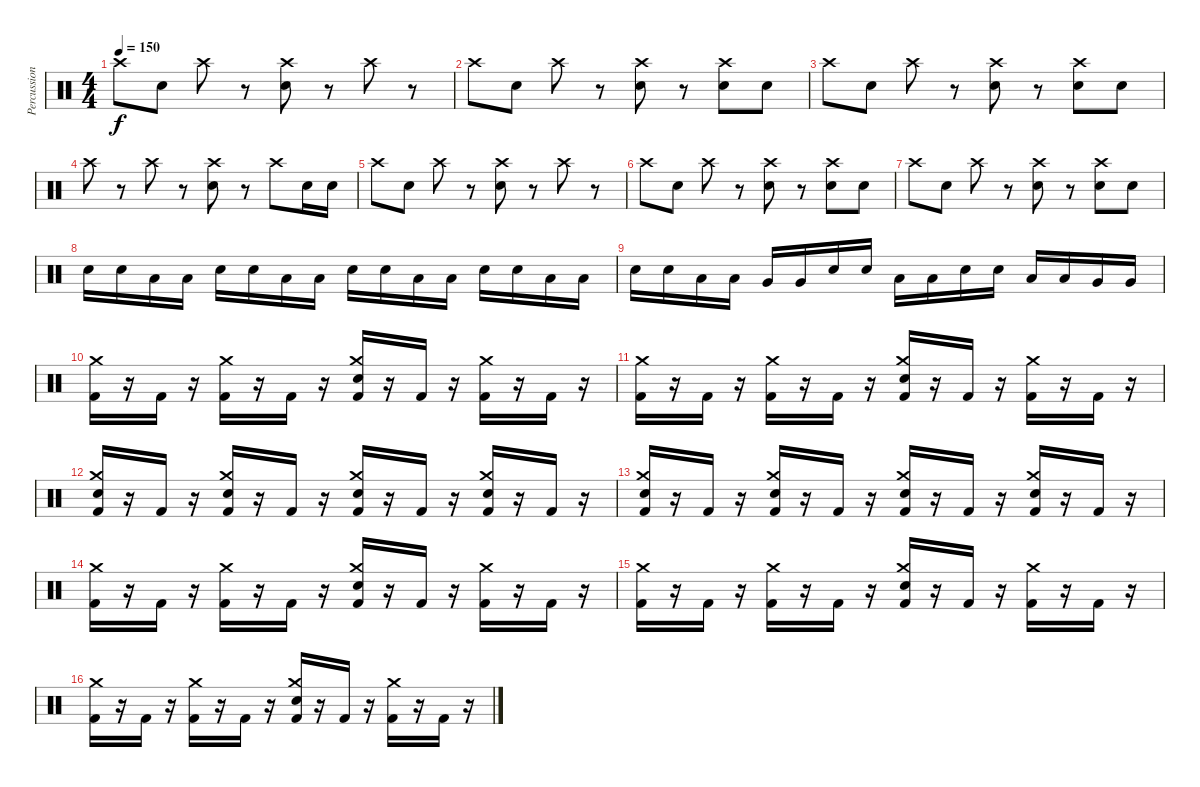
\track ("Percussion" "Percussion") {instrument percussion}
\staff {score}
\articulation defaults
\ts (4 4)
\tempo 150
\clef neutral
\ks c "Crash high (hit)".8{dy f} "Snare (hit) 2".8 "Crash high (hit)".8
r.8 ("Crash high (hit)" "Snare (hit) 2").8 r.8 "Crash high (hit)".8 r.8 |
"Crash high (hit)".8 "Snare (hit) 2".8 "Crash high (hit)".8 r.8 ("Crash high (hit)" "Snare (hit) 2").8 r.8 ("Crash high (hit)" "Snare (hit) 2").8 "Snare (hit) 2".8 |
"Crash high (hit)".8 "Snare (hit) 2".8 "Crash high (hit)".8 r.8 ("Crash high (hit)" "Snare (hit) 2").8 r.8 ("Crash high (hit)" "Snare (hit) 2").8 "Snare (hit) 2".8 |
"Crash high (hit)".8 r.8 "Crash high (hit)".8 r.8 ("Crash high (hit)" "Snare (hit) 2").8 r.8 "Crash high (hit)".8 "Snare (hit) 2".16 "Snare (hit) 2".16 |
"Crash high (hit)".8 "Snare (hit) 2".8 "Crash high (hit)".8 r.8 ("Crash high (hit)" "Snare (hit) 2").8 r.8 "Crash high (hit)".8 r.8 |
"Crash high (hit)".8 "Snare (hit) 2".8 "Crash high (hit)".8 r.8 ("Crash high (hit)" "Snare (hit) 2").8 r.8 ("Crash high (hit)" "Snare (hit) 2").8 "Snare (hit) 2".8 |
"Crash high (hit)".8 "Snare (hit) 2".8 "Crash high (hit)".8 r.8 ("Crash high (hit)" "Snare (hit) 2").8 r.8 ("Crash high (hit)" "Snare (hit) 2").8 "Snare (hit) 2".8 |
"Snare (hit) 2".16 "Snare (hit) 2".16 "Low Tom (hit)".16 "Low Tom (hit)".16 "Snare (hit) 2".16 "Snare (hit) 2".16 "Low Tom (hit)".16 "Low Tom (hit)".16 "Snare (hit) 2".16 "Snare (hit) 2".16 "Low Tom (hit)".16 "Low Tom (hit)".16 "Snare (hit) 2".16 "Snare (hit) 2".16 "Low Tom (hit)".16 "Low Tom (hit)".16 |
"Snare (hit) 2".16 "Snare (hit) 2".16 "Low Tom (hit)".16 "Low Tom (hit)".16 "Very Low Tom (hit)".16 "Very Low Tom (hit)".16 "Snare (hit) 2".16 "Snare (hit) 2".16 "Low Tom (hit)".16 "Low Tom (hit)".16 "Snare (hit) 2".16 "Snare (hit) 2".16 "Low Tom (hit)".16 "Low Tom (hit)".16 "Very Low Tom (hit)".16 "Very Low Tom (hit)".16 |
("Crash medium (hit)" "Kick (hit) 2").16 r.16 "Kick (hit) 2".16 r.16 ("Crash medium (hit)" "Kick (hit) 2").16 r.16 "Kick (hit) 2".16 r.16 ("Crash medium (hit)" "Snare (hit) 2" "Kick (hit) 2").16 r.16 "Kick (hit) 2".16 r.16 ("Crash medium (hit)" "Kick (hit) 2").16 r.16 "Kick (hit) 2".16 r.16 |
("Crash medium (hit)" "Kick (hit) 2").16 r.16 "Kick (hit) 2".16 r.16 ("Crash medium (hit)" "Kick (hit) 2").16 r.16 "Kick (hit) 2".16 r.16 ("Crash medium (hit)" "Snare (hit) 2" "Kick (hit) 2").16 r.16 "Kick (hit) 2".16 r.16 ("Crash medium (hit)" "Kick (hit) 2").16 r.16 "Kick (hit) 2".16 r.16 |
("Crash medium (hit)" "Snare (hit) 2" "Kick (hit) 2").16 r.16 "Kick (hit) 2".16 r.16 ("Crash medium (hit)" "Snare (hit) 2" "Kick (hit) 2").16 r.16 "Kick (hit) 2".16 r.16 ("Crash medium (hit)" "Snare (hit) 2" "Kick (hit) 2").16 r.16 "Kick (hit) 2".16 r.16 ("Crash medium (hit)" "Snare (hit) 2" "Kick (hit) 2").16 r.16 "Kick (hit) 2".16 r.16 |
("Crash medium (hit)" "Snare (hit) 2" "Kick (hit) 2").16 r.16 "Kick (hit) 2".16 r.16 ("Crash medium (hit)" "Snare (hit) 2" "Kick (hit) 2").16 r.16 "Kick (hit) 2".16 r.16 ("Crash medium (hit)" "Snare (hit) 2" "Kick (hit) 2").16 r.16 "Kick (hit) 2".16 r.16 ("Crash medium (hit)" "Snare (hit) 2" "Kick (hit) 2").16 r.16 "Kick (hit) 2".16 r.16 |
("Crash medium (hit)" "Kick (hit) 2").16 r.16 "Kick (hit) 2".16 r.16 ("Crash medium (hit)" "Kick (hit) 2").16 r.16 "Kick (hit) 2".16 r.16 ("Crash medium (hit)" "Snare (hit) 2" "Kick (hit) 2").16 r.16 "Kick (hit) 2".16 r.16 ("Crash medium (hit)" "Kick (hit) 2").16 r.16 "Kick (hit) 2".16 r.16 |
("Crash medium (hit)" "Kick (hit) 2").16 r.16 "Kick (hit) 2".16 r.16 ("Crash medium (hit)" "Kick (hit) 2").16 r.16 "Kick (hit) 2".16 r.16 ("Crash medium (hit)" "Snare (hit) 2" "Kick (hit) 2").16 r.16 "Kick (hit) 2".16 r.16 ("Crash medium (hit)" "Kick (hit) 2").16 r.16 "Kick (hit) 2".16 r.16 |
("Crash medium (hit)" "Kick (hit) 2").16 r.16 "Kick (hit) 2".16 r.16 ("Crash medium (hit)" "Kick (hit) 2").16 r.16 "Kick (hit) 2".16 r.16 ("Crash medium (hit)" "Snare (hit) 2" "Kick (hit) 2").16 r.16 "Kick (hit) 2".16 r.16 ("Crash medium (hit)" "Kick (hit) 2").16 r.16 "Kick (hit) 2".16 r.16
